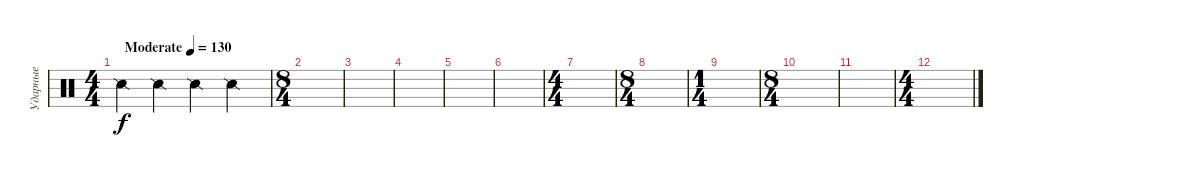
\track ("Ударные" "Ударные") {instrument percussion}
\staff {score}
\articulation defaults
\ts (4 4)
\tempo (130 "Moderate")
\clef neutral
\ks c "Snare (side stick) 2".4{dy f} "Snare (side stick) 2".4 "Snare (side stick) 2".4 "Snare (side stick) 2".4
|
\ts (8 4)
|
|
|
|
|
\ts (4 4)
|
\ts (8 4)
|
\ts (1 4)
|
\ts (8 4)
|
|
\ts (4 4)
